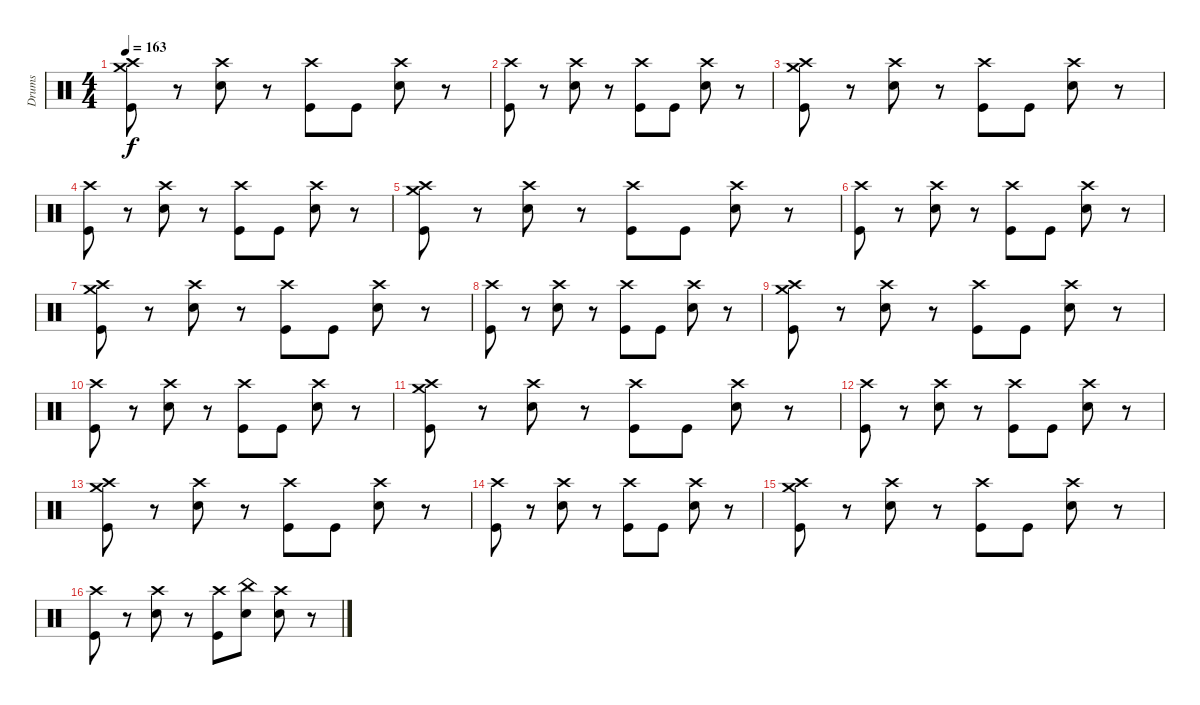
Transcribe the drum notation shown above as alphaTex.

\track ("Drums" "Drums") {instrument percussion}
\staff {score}
\articulation defaults
\ts (4 4)
\tempo 163
\clef neutral
\ks c
("Crash high (hit)" "Crash medium (hit)" "Kick (hit)").8{dy f} r.8 ("Crash high (hit)" "Electric Snare (hit)").8 r.8 ("Crash high (hit)" "Kick (hit)").8 "Kick (hit)".8 ("Crash high (hit)" "Electric Snare (hit)").8 r.8 |
("Crash high (hit)" "Kick (hit)").8 r.8 ("Crash high (hit)" "Electric Snare (hit)").8 r.8 ("Crash high (hit)" "Kick (hit)").8 "Kick (hit)".8 ("Crash high (hit)" "Electric Snare (hit)").8 r.8 |
("Crash high (hit)" "Crash medium (hit)" "Kick (hit)").8 r.8 ("Crash high (hit)" "Electric Snare (hit)").8 r.8 ("Crash high (hit)" "Kick (hit)").8 "Kick (hit)".8 ("Crash high (hit)" "Electric Snare (hit)").8 r.8 |
("Crash high (hit)" "Kick (hit)").8 r.8 ("Crash high (hit)" "Electric Snare (hit)").8 r.8 ("Crash high (hit)" "Kick (hit)").8 "Kick (hit)".8 ("Crash high (hit)" "Electric Snare (hit)").8 r.8 |
("Crash high (hit)" "Crash medium (hit)" "Kick (hit)").8 r.8 ("Crash high (hit)" "Electric Snare (hit)").8 r.8 ("Crash high (hit)" "Kick (hit)").8 "Kick (hit)".8 ("Crash high (hit)" "Electric Snare (hit)").8 r.8 |
("Crash high (hit)" "Kick (hit)").8 r.8 ("Crash high (hit)" "Electric Snare (hit)").8 r.8 ("Crash high (hit)" "Kick (hit)").8 "Kick (hit)".8 ("Crash high (hit)" "Electric Snare (hit)").8 r.8 |
("Crash high (hit)" "Crash medium (hit)" "Kick (hit)").8 r.8 ("Crash high (hit)" "Electric Snare (hit)").8 r.8 ("Crash high (hit)" "Kick (hit)").8 "Kick (hit)".8 ("Crash high (hit)" "Electric Snare (hit)").8 r.8 |
("Crash high (hit)" "Kick (hit)").8 r.8 ("Crash high (hit)" "Electric Snare (hit)").8 r.8 ("Crash high (hit)" "Kick (hit)").8 "Kick (hit)".8 ("Crash high (hit)" "Electric Snare (hit)").8 r.8 |
("Crash high (hit)" "Crash medium (hit)" "Kick (hit)").8 r.8 ("Crash high (hit)" "Electric Snare (hit)").8 r.8 ("Crash high (hit)" "Kick (hit)").8 "Kick (hit)".8 ("Crash high (hit)" "Electric Snare (hit)").8 r.8 |
("Crash high (hit)" "Kick (hit)").8 r.8 ("Crash high (hit)" "Electric Snare (hit)").8 r.8 ("Crash high (hit)" "Kick (hit)").8 "Kick (hit)".8 ("Crash high (hit)" "Electric Snare (hit)").8 r.8 |
("Crash high (hit)" "Crash medium (hit)" "Kick (hit)").8 r.8 ("Crash high (hit)" "Electric Snare (hit)").8 r.8 ("Crash high (hit)" "Kick (hit)").8 "Kick (hit)".8 ("Crash high (hit)" "Electric Snare (hit)").8 r.8 |
("Crash high (hit)" "Kick (hit)").8 r.8 ("Crash high (hit)" "Electric Snare (hit)").8 r.8 ("Crash high (hit)" "Kick (hit)").8 "Kick (hit)".8 ("Crash high (hit)" "Electric Snare (hit)").8 r.8 |
("Crash high (hit)" "Crash medium (hit)" "Kick (hit)").8 r.8 ("Crash high (hit)" "Electric Snare (hit)").8 r.8 ("Crash high (hit)" "Kick (hit)").8 "Kick (hit)".8 ("Crash high (hit)" "Electric Snare (hit)").8 r.8 |
("Crash high (hit)" "Kick (hit)").8 r.8 ("Crash high (hit)" "Electric Snare (hit)").8 r.8 ("Crash high (hit)" "Kick (hit)").8 "Kick (hit)".8 ("Crash high (hit)" "Electric Snare (hit)").8 r.8 |
("Crash high (hit)" "Crash medium (hit)" "Kick (hit)").8 r.8 ("Crash high (hit)" "Electric Snare (hit)").8 r.8 ("Crash high (hit)" "Kick (hit)").8 "Kick (hit)".8 ("Crash high (hit)" "Electric Snare (hit)").8 r.8 |
("Crash high (hit)" "Kick (hit)").8 r.8 ("Crash high (hit)" "Electric Snare (hit)").8 r.8 ("Crash high (hit)" "Kick (hit)").8 ("China (hit)" "Electric Snare (hit)").8 ("Crash high (hit)" "Electric Snare (hit)").8 r.8
